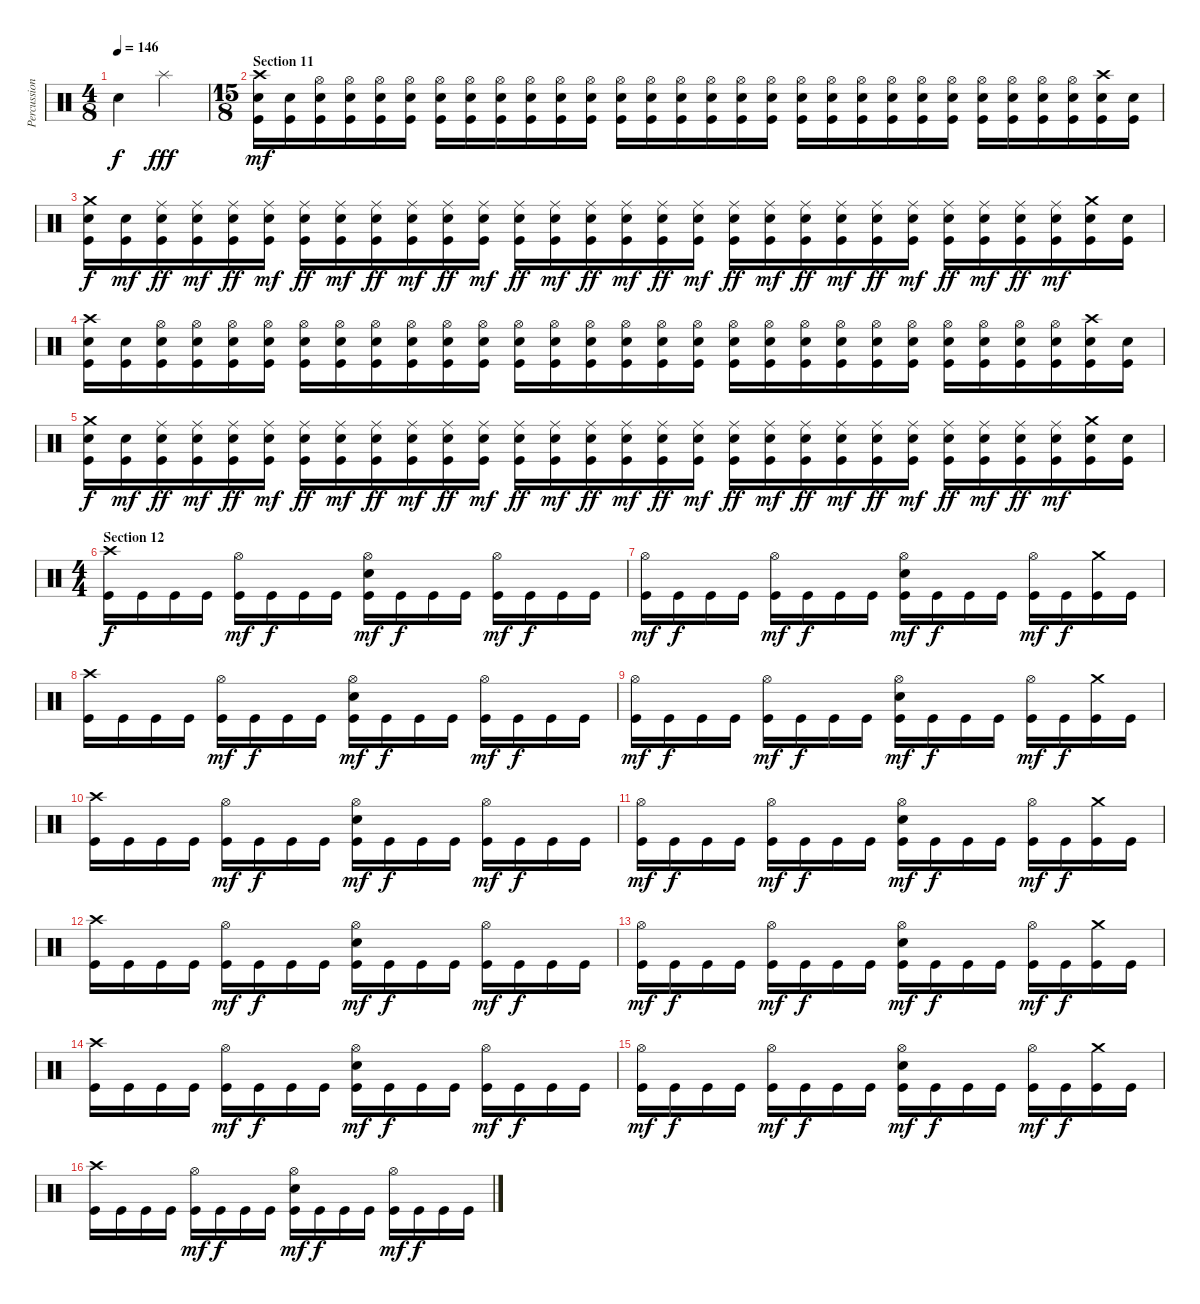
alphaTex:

\track ("Percussion" "Percussion") {instrument percussion}
\staff {score}
\articulation defaults
\ts (4 8)
\tempo 146
\clef neutral
\ks c "Snare (hit)"{t}.4{dy f} "Splash (hit)".4{dy fff}
|
\ts (15 8)
\section ("" "Section 11")
("Crash high (hit)" "Electric Snare (hit)" "Kick (hit)").16{dy mf} ("Electric Snare (hit)" "Kick (hit)").16 ("Hi-Hat (open)" "Electric Snare (hit)" "Kick (hit)").16 ("Hi-Hat (open)" "Electric Snare (hit)" "Kick (hit)").16 ("Hi-Hat (open)" "Electric Snare (hit)" "Kick (hit)").16 ("Hi-Hat (open)" "Electric Snare (hit)" "Kick (hit)").16 ("Hi-Hat (open)" "Electric Snare (hit)" "Kick (hit)").16 ("Hi-Hat (open)" "Electric Snare (hit)" "Kick (hit)").16 ("Hi-Hat (open)" "Electric Snare (hit)" "Kick (hit)").16 ("Hi-Hat (open)" "Electric Snare (hit)" "Kick (hit)").16 ("Hi-Hat (open)" "Electric Snare (hit)" "Kick (hit)").16 ("Hi-Hat (open)" "Electric Snare (hit)" "Kick (hit)").16 ("Hi-Hat (open)" "Electric Snare (hit)" "Kick (hit)").16 ("Hi-Hat (open)" "Electric Snare (hit)" "Kick (hit)").16 ("Hi-Hat (open)" "Electric Snare (hit)" "Kick (hit)").16 ("Hi-Hat (open)" "Electric Snare (hit)" "Kick (hit)").16 ("Hi-Hat (open)" "Electric Snare (hit)" "Kick (hit)").16 ("Hi-Hat (open)" "Electric Snare (hit)" "Kick (hit)").16 ("Hi-Hat (open)" "Electric Snare (hit)" "Kick (hit)").16 ("Hi-Hat (open)" "Electric Snare (hit)" "Kick (hit)").16 ("Hi-Hat (open)" "Electric Snare (hit)" "Kick (hit)").16 ("Hi-Hat (open)" "Electric Snare (hit)" "Kick (hit)").16 ("Hi-Hat (open)" "Electric Snare (hit)" "Kick (hit)").16 ("Hi-Hat (open)" "Electric Snare (hit)" "Kick (hit)").16 ("Hi-Hat (open)" "Electric Snare (hit)" "Kick (hit)").16 ("Hi-Hat (open)" "Electric Snare (hit)" "Kick (hit)").16 ("Hi-Hat (open)" "Electric Snare (hit)" "Kick (hit)").16 ("Hi-Hat (open)" "Electric Snare (hit)" "Kick (hit)").16 ("Crash high (hit)" "Electric Snare (hit)" "Kick (hit)").16 ("Electric Snare (hit)" "Kick (hit)").16 |
("Crash medium (hit)" "Electric Snare (hit)" "Kick (hit)").16{dy f} ("Electric Snare (hit)" "Kick (hit)").16{dy mf} ("Ride (middle)" "Electric Snare (hit)" "Kick (hit)").16{dy ff} ("Ride (middle)" "Electric Snare (hit)" "Kick (hit)").16{dy mf} ("Ride (middle)" "Electric Snare (hit)" "Kick (hit)").16{dy ff} ("Ride (middle)" "Electric Snare (hit)" "Kick (hit)").16{dy mf} ("Ride (middle)" "Electric Snare (hit)" "Kick (hit)").16{dy ff} ("Ride (middle)" "Electric Snare (hit)" "Kick (hit)").16{dy mf} ("Ride (middle)" "Electric Snare (hit)" "Kick (hit)").16{dy ff} ("Ride (middle)" "Electric Snare (hit)" "Kick (hit)").16{dy mf} ("Ride (middle)" "Electric Snare (hit)" "Kick (hit)").16{dy ff} ("Ride (middle)" "Electric Snare (hit)" "Kick (hit)").16{dy mf} ("Ride (middle)" "Electric Snare (hit)" "Kick (hit)").16{dy ff} ("Ride (middle)" "Electric Snare (hit)" "Kick (hit)").16{dy mf} ("Ride (middle)" "Electric Snare (hit)" "Kick (hit)").16{dy ff} ("Ride (middle)" "Electric Snare (hit)" "Kick (hit)").16{dy mf} ("Ride (middle)" "Electric Snare (hit)" "Kick (hit)").16{dy ff} ("Ride (middle)" "Electric Snare (hit)" "Kick (hit)").16{dy mf} ("Ride (middle)" "Electric Snare (hit)" "Kick (hit)").16{dy ff} ("Ride (middle)" "Electric Snare (hit)" "Kick (hit)").16{dy mf} ("Ride (middle)" "Electric Snare (hit)" "Kick (hit)").16{dy ff} ("Ride (middle)" "Electric Snare (hit)" "Kick (hit)").16{dy mf} ("Ride (middle)" "Electric Snare (hit)" "Kick (hit)").16{dy ff} ("Ride (middle)" "Electric Snare (hit)" "Kick (hit)").16{dy mf} ("Ride (middle)" "Electric Snare (hit)" "Kick (hit)").16{dy ff} ("Ride (middle)" "Electric Snare (hit)" "Kick (hit)").16{dy mf} ("Ride (middle)" "Electric Snare (hit)" "Kick (hit)").16{dy ff} ("Ride (middle)" "Electric Snare (hit)" "Kick (hit)").16{dy mf} ("Crash medium (hit)" "Electric Snare (hit)" "Kick (hit)").16 ("Electric Snare (hit)" "Kick (hit)").16 |
("Crash high (hit)" "Electric Snare (hit)" "Kick (hit)").16 ("Electric Snare (hit)" "Kick (hit)").16 ("Hi-Hat (open)" "Electric Snare (hit)" "Kick (hit)").16 ("Hi-Hat (open)" "Electric Snare (hit)" "Kick (hit)").16 ("Hi-Hat (open)" "Electric Snare (hit)" "Kick (hit)").16 ("Hi-Hat (open)" "Electric Snare (hit)" "Kick (hit)").16 ("Hi-Hat (open)" "Electric Snare (hit)" "Kick (hit)").16 ("Hi-Hat (open)" "Electric Snare (hit)" "Kick (hit)").16 ("Hi-Hat (open)" "Electric Snare (hit)" "Kick (hit)").16 ("Hi-Hat (open)" "Electric Snare (hit)" "Kick (hit)").16 ("Hi-Hat (open)" "Electric Snare (hit)" "Kick (hit)").16 ("Hi-Hat (open)" "Electric Snare (hit)" "Kick (hit)").16 ("Hi-Hat (open)" "Electric Snare (hit)" "Kick (hit)").16 ("Hi-Hat (open)" "Electric Snare (hit)" "Kick (hit)").16 ("Hi-Hat (open)" "Electric Snare (hit)" "Kick (hit)").16 ("Hi-Hat (open)" "Electric Snare (hit)" "Kick (hit)").16 ("Hi-Hat (open)" "Electric Snare (hit)" "Kick (hit)").16 ("Hi-Hat (open)" "Electric Snare (hit)" "Kick (hit)").16 ("Hi-Hat (open)" "Electric Snare (hit)" "Kick (hit)").16 ("Hi-Hat (open)" "Electric Snare (hit)" "Kick (hit)").16 ("Hi-Hat (open)" "Electric Snare (hit)" "Kick (hit)").16 ("Hi-Hat (open)" "Electric Snare (hit)" "Kick (hit)").16 ("Hi-Hat (open)" "Electric Snare (hit)" "Kick (hit)").16 ("Hi-Hat (open)" "Electric Snare (hit)" "Kick (hit)").16 ("Hi-Hat (open)" "Electric Snare (hit)" "Kick (hit)").16 ("Hi-Hat (open)" "Electric Snare (hit)" "Kick (hit)").16 ("Hi-Hat (open)" "Electric Snare (hit)" "Kick (hit)").16 ("Hi-Hat (open)" "Electric Snare (hit)" "Kick (hit)").16 ("Crash high (hit)" "Electric Snare (hit)" "Kick (hit)").16 ("Electric Snare (hit)" "Kick (hit)").16 |
("Crash medium (hit)" "Electric Snare (hit)" "Kick (hit)").16{dy f} ("Electric Snare (hit)" "Kick (hit)").16{dy mf} ("Ride (middle)" "Electric Snare (hit)" "Kick (hit)").16{dy ff} ("Ride (middle)" "Electric Snare (hit)" "Kick (hit)").16{dy mf} ("Ride (middle)" "Electric Snare (hit)" "Kick (hit)").16{dy ff} ("Ride (middle)" "Electric Snare (hit)" "Kick (hit)").16{dy mf} ("Ride (middle)" "Electric Snare (hit)" "Kick (hit)").16{dy ff} ("Ride (middle)" "Electric Snare (hit)" "Kick (hit)").16{dy mf} ("Ride (middle)" "Electric Snare (hit)" "Kick (hit)").16{dy ff} ("Ride (middle)" "Electric Snare (hit)" "Kick (hit)").16{dy mf} ("Ride (middle)" "Electric Snare (hit)" "Kick (hit)").16{dy ff} ("Ride (middle)" "Electric Snare (hit)" "Kick (hit)").16{dy mf} ("Ride (middle)" "Electric Snare (hit)" "Kick (hit)").16{dy ff} ("Ride (middle)" "Electric Snare (hit)" "Kick (hit)").16{dy mf} ("Ride (middle)" "Electric Snare (hit)" "Kick (hit)").16{dy ff} ("Ride (middle)" "Electric Snare (hit)" "Kick (hit)").16{dy mf} ("Ride (middle)" "Electric Snare (hit)" "Kick (hit)").16{dy ff} ("Ride (middle)" "Electric Snare (hit)" "Kick (hit)").16{dy mf} ("Ride (middle)" "Electric Snare (hit)" "Kick (hit)").16{dy ff} ("Ride (middle)" "Electric Snare (hit)" "Kick (hit)").16{dy mf} ("Ride (middle)" "Electric Snare (hit)" "Kick (hit)").16{dy ff} ("Ride (middle)" "Electric Snare (hit)" "Kick (hit)").16{dy mf} ("Ride (middle)" "Electric Snare (hit)" "Kick (hit)").16{dy ff} ("Ride (middle)" "Electric Snare (hit)" "Kick (hit)").16{dy mf} ("Ride (middle)" "Electric Snare (hit)" "Kick (hit)").16{dy ff} ("Ride (middle)" "Electric Snare (hit)" "Kick (hit)").16{dy mf} ("Ride (middle)" "Electric Snare (hit)" "Kick (hit)").16{dy ff} ("Ride (middle)" "Electric Snare (hit)" "Kick (hit)").16{dy mf} ("Crash medium (hit)" "Electric Snare (hit)" "Kick (hit)").16 ("Electric Snare (hit)" "Kick (hit)").16 |
\ts (4 4)
\section ("" "Section 12")
("Crash high (hit)" "Kick (hit)").16{dy f} "Kick (hit)".16 "Kick (hit)".16 "Kick (hit)".16 ("Hi-Hat (open)" "Kick (hit)").16{dy mf} "Kick (hit)".16{dy f} "Kick (hit)".16 "Kick (hit)".16 ("Hi-Hat (open)" "Electric Snare (hit)" "Kick (hit)").16{dy mf} "Kick (hit)".16{dy f} "Kick (hit)".16 "Kick (hit)".16 ("Hi-Hat (open)" "Kick (hit)").16{dy mf} "Kick (hit)".16{dy f} "Kick (hit)".16 "Kick (hit)".16 |
("Hi-Hat (open)" "Kick (hit)").16{dy mf} "Kick (hit)".16{dy f} "Kick (hit)".16 "Kick (hit)".16 ("Hi-Hat (open)" "Kick (hit)").16{dy mf} "Kick (hit)".16{dy f} "Kick (hit)".16 "Kick (hit)".16 ("Hi-Hat (open)" "Electric Snare (hit)" "Kick (hit)").16{dy mf} "Kick (hit)".16{dy f} "Kick (hit)".16 "Kick (hit)".16 ("Hi-Hat (open)" "Kick (hit)").16{dy mf} "Kick (hit)".16{dy f} ("Crash medium (hit)" "Kick (hit)").16 "Kick (hit)".16 |
("Crash high (hit)" "Kick (hit)").16 "Kick (hit)".16 "Kick (hit)".16 "Kick (hit)".16 ("Hi-Hat (open)" "Kick (hit)").16{dy mf} "Kick (hit)".16{dy f} "Kick (hit)".16 "Kick (hit)".16 ("Hi-Hat (open)" "Electric Snare (hit)" "Kick (hit)").16{dy mf} "Kick (hit)".16{dy f} "Kick (hit)".16 "Kick (hit)".16 ("Hi-Hat (open)" "Kick (hit)").16{dy mf} "Kick (hit)".16{dy f} "Kick (hit)".16 "Kick (hit)".16 |
("Hi-Hat (open)" "Kick (hit)").16{dy mf} "Kick (hit)".16{dy f} "Kick (hit)".16 "Kick (hit)".16 ("Hi-Hat (open)" "Kick (hit)").16{dy mf} "Kick (hit)".16{dy f} "Kick (hit)".16 "Kick (hit)".16 ("Hi-Hat (open)" "Electric Snare (hit)" "Kick (hit)").16{dy mf} "Kick (hit)".16{dy f} "Kick (hit)".16 "Kick (hit)".16 ("Hi-Hat (open)" "Kick (hit)").16{dy mf} "Kick (hit)".16{dy f} ("Crash medium (hit)" "Kick (hit)").16 "Kick (hit)".16 |
("Crash high (hit)" "Kick (hit)").16 "Kick (hit)".16 "Kick (hit)".16 "Kick (hit)".16 ("Hi-Hat (open)" "Kick (hit)").16{dy mf} "Kick (hit)".16{dy f} "Kick (hit)".16 "Kick (hit)".16 ("Hi-Hat (open)" "Electric Snare (hit)" "Kick (hit)").16{dy mf} "Kick (hit)".16{dy f} "Kick (hit)".16 "Kick (hit)".16 ("Hi-Hat (open)" "Kick (hit)").16{dy mf} "Kick (hit)".16{dy f} "Kick (hit)".16 "Kick (hit)".16 |
("Hi-Hat (open)" "Kick (hit)").16{dy mf} "Kick (hit)".16{dy f} "Kick (hit)".16 "Kick (hit)".16 ("Hi-Hat (open)" "Kick (hit)").16{dy mf} "Kick (hit)".16{dy f} "Kick (hit)".16 "Kick (hit)".16 ("Hi-Hat (open)" "Electric Snare (hit)" "Kick (hit)").16{dy mf} "Kick (hit)".16{dy f} "Kick (hit)".16 "Kick (hit)".16 ("Hi-Hat (open)" "Kick (hit)").16{dy mf} "Kick (hit)".16{dy f} ("Crash medium (hit)" "Kick (hit)").16 "Kick (hit)".16 |
("Crash high (hit)" "Kick (hit)").16 "Kick (hit)".16 "Kick (hit)".16 "Kick (hit)".16 ("Hi-Hat (open)" "Kick (hit)").16{dy mf} "Kick (hit)".16{dy f} "Kick (hit)".16 "Kick (hit)".16 ("Hi-Hat (open)" "Electric Snare (hit)" "Kick (hit)").16{dy mf} "Kick (hit)".16{dy f} "Kick (hit)".16 "Kick (hit)".16 ("Hi-Hat (open)" "Kick (hit)").16{dy mf} "Kick (hit)".16{dy f} "Kick (hit)".16 "Kick (hit)".16 |
("Hi-Hat (open)" "Kick (hit)").16{dy mf} "Kick (hit)".16{dy f} "Kick (hit)".16 "Kick (hit)".16 ("Hi-Hat (open)" "Kick (hit)").16{dy mf} "Kick (hit)".16{dy f} "Kick (hit)".16 "Kick (hit)".16 ("Hi-Hat (open)" "Electric Snare (hit)" "Kick (hit)").16{dy mf} "Kick (hit)".16{dy f} "Kick (hit)".16 "Kick (hit)".16 ("Hi-Hat (open)" "Kick (hit)").16{dy mf} "Kick (hit)".16{dy f} ("Crash medium (hit)" "Kick (hit)").16 "Kick (hit)".16 |
("Crash high (hit)" "Kick (hit)").16 "Kick (hit)".16 "Kick (hit)".16 "Kick (hit)".16 ("Hi-Hat (open)" "Kick (hit)").16{dy mf} "Kick (hit)".16{dy f} "Kick (hit)".16 "Kick (hit)".16 ("Hi-Hat (open)" "Electric Snare (hit)" "Kick (hit)").16{dy mf} "Kick (hit)".16{dy f} "Kick (hit)".16 "Kick (hit)".16 ("Hi-Hat (open)" "Kick (hit)").16{dy mf} "Kick (hit)".16{dy f} "Kick (hit)".16 "Kick (hit)".16 |
("Hi-Hat (open)" "Kick (hit)").16{dy mf} "Kick (hit)".16{dy f} "Kick (hit)".16 "Kick (hit)".16 ("Hi-Hat (open)" "Kick (hit)").16{dy mf} "Kick (hit)".16{dy f} "Kick (hit)".16 "Kick (hit)".16 ("Hi-Hat (open)" "Electric Snare (hit)" "Kick (hit)").16{dy mf} "Kick (hit)".16{dy f} "Kick (hit)".16 "Kick (hit)".16 ("Hi-Hat (open)" "Kick (hit)").16{dy mf} "Kick (hit)".16{dy f} ("Crash medium (hit)" "Kick (hit)").16 "Kick (hit)".16 |
("Crash high (hit)" "Kick (hit)").16 "Kick (hit)".16 "Kick (hit)".16 "Kick (hit)".16 ("Hi-Hat (open)" "Kick (hit)").16{dy mf} "Kick (hit)".16{dy f} "Kick (hit)".16 "Kick (hit)".16 ("Hi-Hat (open)" "Electric Snare (hit)" "Kick (hit)").16{dy mf} "Kick (hit)".16{dy f} "Kick (hit)".16 "Kick (hit)".16 ("Hi-Hat (open)" "Kick (hit)").16{dy mf} "Kick (hit)".16{dy f} "Kick (hit)".16 "Kick (hit)".16
